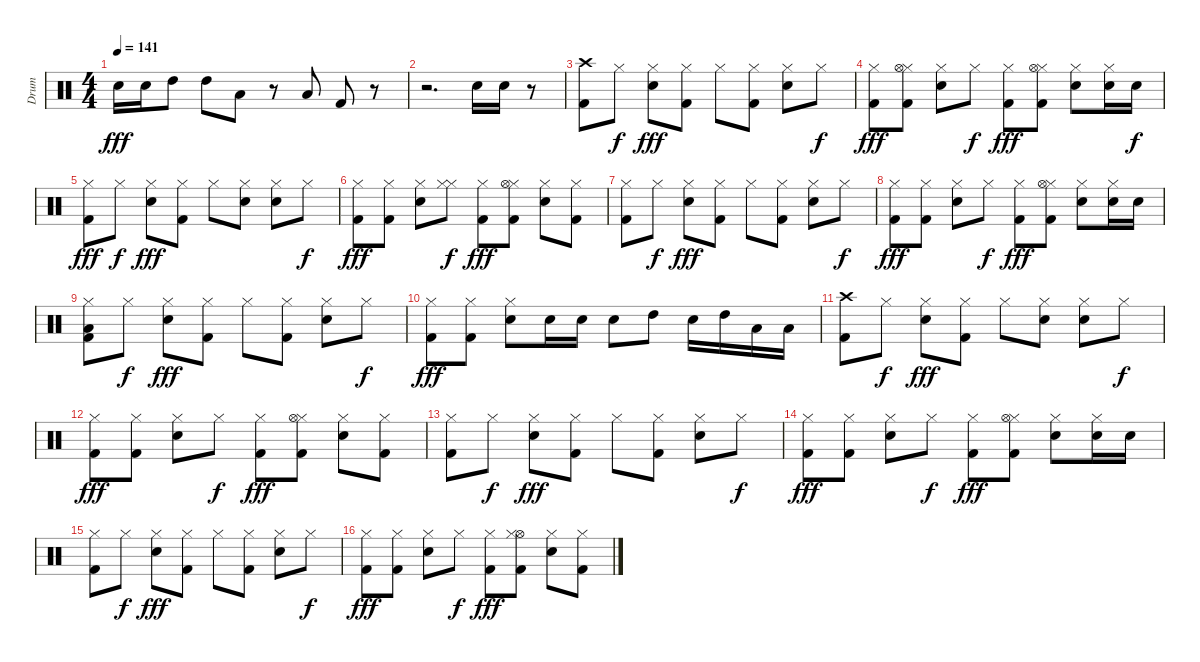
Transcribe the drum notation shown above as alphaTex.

\track ("Drum" "Drum") {instrument percussion}
\staff {score}
\articulation defaults
\ts (4 4)
\tempo 141
\clef neutral
\ks c "Snare (hit) 2".16{dy fff} "Snare (hit) 2".16 "High Tom (hit)".8 "High Tom (hit)".8 "Low Tom (hit)".8
r.8 "Low Floor Tom (hit)".8 "Kick (hit) 2".8 r.8 |
r.2{d} "Snare (hit) 2".16 "Snare (hit) 2".16 r.8 |
("Crash high (hit)" "Kick (hit) 2").8 "Hi-Hat (closed)".8{dy f} ("Hi-Hat (closed)" "Snare (hit) 2").8{dy fff} ("Hi-Hat (closed)" "Kick (hit) 2").8 "Hi-Hat (closed)".8 ("Kick (hit) 2" "Hi-Hat (closed)").8 ("Snare (hit) 2" "Hi-Hat (closed)").8 "Hi-Hat (closed)".8{dy f} |
("Hi-Hat (closed)" "Kick (hit) 2").8{dy fff} ("Hi-Hat (closed)" "Kick (hit) 2" "Hi-Hat (open)").8 ("Hi-Hat (closed)" "Snare (hit) 2").8 "Hi-Hat (closed)".8{dy f} ("Hi-Hat (closed)" "Kick (hit) 2").8{dy fff} ("Hi-Hat (closed)" "Kick (hit) 2" "Hi-Hat (open)").8 ("Hi-Hat (closed)" "Snare (hit) 2").8 ("Hi-Hat (closed)" "Snare (hit) 2").16 "Snare (hit) 2".16{dy f} |
("Hi-Hat (closed)" "Kick (hit) 2").8{dy fff} "Hi-Hat (closed)".8{dy f} ("Hi-Hat (closed)" "Snare (hit) 2").8{dy fff} ("Hi-Hat (closed)" "Kick (hit) 2").8 "Hi-Hat (closed)".8 ("Hi-Hat (closed)" "Snare (hit) 2").8 ("Hi-Hat (closed)" "Snare (hit) 2").8 "Hi-Hat (closed)".8{dy f} |
("Kick (hit) 2" "Hi-Hat (closed)").8{dy fff} ("Kick (hit) 2" "Hi-Hat (closed)").8 ("Snare (hit) 2" "Hi-Hat (closed)").8 ("Hi-Hat (closed)" "Hi-Hat (closed)").8{dy f} ("Kick (hit) 2" "Hi-Hat (closed)").8{dy fff} ("Kick (hit) 2" "Hi-Hat (closed)" "Hi-Hat (open)").8 ("Snare (hit) 2" "Hi-Hat (closed)").8 ("Kick (hit) 2" "Hi-Hat (closed)").8 |
("Kick (hit) 2" "Hi-Hat (closed)").8 "Hi-Hat (closed)".8{dy f} ("Snare (hit) 2" "Hi-Hat (closed)").8{dy fff} ("Kick (hit) 2" "Hi-Hat (closed)").8 "Hi-Hat (closed)".8 ("Kick (hit) 2" "Hi-Hat (closed)").8 ("Snare (hit) 2" "Hi-Hat (closed)").8 "Hi-Hat (closed)".8{dy f} |
("Kick (hit) 2" "Hi-Hat (closed)").8{dy fff} ("Kick (hit) 2" "Hi-Hat (closed)").8 ("Snare (hit) 2" "Hi-Hat (closed)").8 "Hi-Hat (closed)".8{dy f} ("Kick (hit) 2" "Hi-Hat (closed)").8{dy fff} ("Kick (hit) 2" "Hi-Hat (closed)" "Hi-Hat (open)").8 ("Snare (hit) 2" "Hi-Hat (closed)").8 ("Snare (hit) 2" "Hi-Hat (closed)").16 "Snare (hit) 2".16 |
("Hi-Hat (closed)" "Kick (hit) 2" "Low Floor Tom (hit)").8 "Hi-Hat (closed)".8{dy f} ("Hi-Hat (closed)" "Snare (hit) 2").8{dy fff} ("Hi-Hat (closed)" "Kick (hit) 2").8 "Hi-Hat (closed)".8 ("Hi-Hat (closed)" "Kick (hit) 2").8 ("Hi-Hat (closed)" "Snare (hit) 2").8 "Hi-Hat (closed)".8{dy f} |
("Kick (hit) 2" "Hi-Hat (closed)").8{dy fff} ("Kick (hit) 2" "Hi-Hat (closed)").8 ("Snare (hit) 2" "Hi-Hat (closed)").8 "Snare (hit) 2".16 "Snare (hit) 2".16 "Snare (hit) 2".8 "High Tom (hit)".8 "Snare (hit) 2".16 "High Tom (hit)".16 "Low Tom (hit)".16 "Low Floor Tom (hit)".16 |
("Crash high (hit)" "Kick (hit) 2").8 "Hi-Hat (closed)".8{dy f} ("Hi-Hat (closed)" "Snare (hit) 2").8{dy fff} ("Hi-Hat (closed)" "Kick (hit) 2").8 "Hi-Hat (closed)".8 ("Hi-Hat (closed)" "Snare (hit) 2").8 ("Hi-Hat (closed)" "Snare (hit) 2").8 "Hi-Hat (closed)".8{dy f} |
("Hi-Hat (closed)" "Kick (hit) 2").8{dy fff} ("Hi-Hat (closed)" "Kick (hit) 2").8 ("Hi-Hat (closed)" "Snare (hit) 2").8 "Hi-Hat (closed)".8{dy f} ("Hi-Hat (closed)" "Kick (hit) 2").8{dy fff} ("Hi-Hat (closed)" "Kick (hit) 2" "Hi-Hat (open)").8 ("Hi-Hat (closed)" "Snare (hit) 2").8 ("Hi-Hat (closed)" "Kick (hit) 2").8 |
("Hi-Hat (closed)" "Kick (hit) 2").8 "Hi-Hat (closed)".8{dy f} ("Hi-Hat (closed)" "Snare (hit) 2").8{dy fff} ("Hi-Hat (closed)" "Kick (hit) 2").8 "Hi-Hat (closed)".8 ("Hi-Hat (closed)" "Kick (hit) 2").8 ("Hi-Hat (closed)" "Snare (hit) 2").8 "Hi-Hat (closed)".8{dy f} |
("Kick (hit) 2" "Hi-Hat (closed)").8{dy fff} ("Kick (hit) 2" "Hi-Hat (closed)").8 ("Snare (hit) 2" "Hi-Hat (closed)").8 "Hi-Hat (closed)".8{dy f} ("Kick (hit) 2" "Hi-Hat (closed)").8{dy fff} ("Kick (hit) 2" "Hi-Hat (closed)" "Hi-Hat (open)").8 ("Snare (hit) 2" "Hi-Hat (closed)").8 ("Snare (hit) 2" "Hi-Hat (closed)").16 "Snare (hit) 2".16 |
("Hi-Hat (closed)" "Kick (hit) 2").8 "Hi-Hat (closed)".8{dy f} ("Hi-Hat (closed)" "Snare (hit) 2").8{dy fff} ("Hi-Hat (closed)" "Kick (hit) 2").8 "Hi-Hat (closed)".8 ("Hi-Hat (closed)" "Kick (hit) 2").8 ("Hi-Hat (closed)" "Snare (hit) 2").8 "Hi-Hat (closed)".8{dy f} |
("Kick (hit) 2" "Hi-Hat (closed)").8{dy fff} ("Kick (hit) 2" "Hi-Hat (closed)").8 ("Snare (hit) 2" "Hi-Hat (closed)").8 "Hi-Hat (closed)".8{dy f} ("Hi-Hat (closed)" "Kick (hit) 2").8{dy fff} ("Hi-Hat (open)" "Hi-Hat (closed)" "Kick (hit) 2").8 ("Snare (hit) 2" "Hi-Hat (closed)").8 ("Kick (hit) 2" "Hi-Hat (closed)").8
